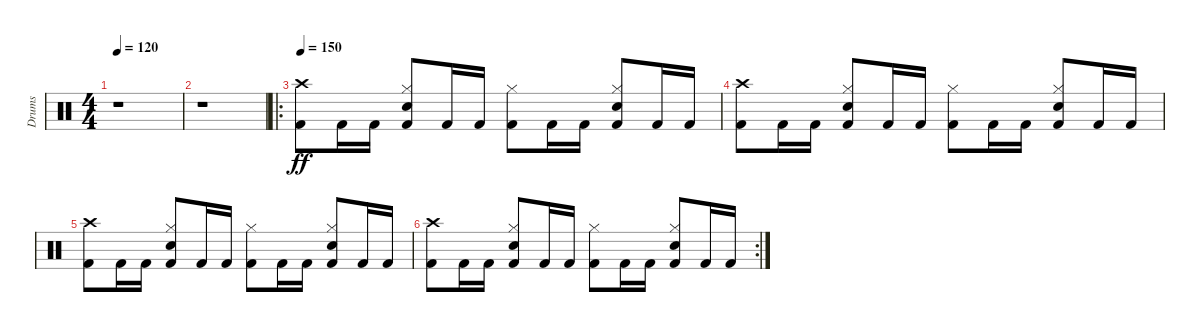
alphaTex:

\track ("Drums" "Drums") {instrument percussion}
\staff {score}
\articulation defaults
\ts (4 4)
\tempo 120
\clef neutral
\ks c
r.1{dy f} |
r.1 |
\ro
\tempo 150
("Crash high (hit)" "Kick (hit) 2").8{dy ff} "Kick (hit) 2".16 "Kick (hit) 2".16 ("Hi-Hat (closed)" "Snare (hit) 2" "Kick (hit) 2").8 "Kick (hit) 2".16 "Kick (hit) 2".16 ("Hi-Hat (closed)" "Kick (hit) 2").8 "Kick (hit) 2".16 "Kick (hit) 2".16 ("Hi-Hat (closed)" "Snare (hit) 2" "Kick (hit) 2").8 "Kick (hit) 2".16 "Kick (hit) 2".16 |
("Crash high (hit)" "Kick (hit) 2").8 "Kick (hit) 2".16 "Kick (hit) 2".16 ("Hi-Hat (closed)" "Snare (hit) 2" "Kick (hit) 2").8 "Kick (hit) 2".16 "Kick (hit) 2".16 ("Hi-Hat (closed)" "Kick (hit) 2").8 "Kick (hit) 2".16 "Kick (hit) 2".16 ("Hi-Hat (closed)" "Snare (hit) 2" "Kick (hit) 2").8 "Kick (hit) 2".16 "Kick (hit) 2".16 |
("Crash high (hit)" "Kick (hit) 2").8 "Kick (hit) 2".16 "Kick (hit) 2".16 ("Hi-Hat (closed)" "Snare (hit) 2" "Kick (hit) 2").8 "Kick (hit) 2".16 "Kick (hit) 2".16 ("Hi-Hat (closed)" "Kick (hit) 2").8 "Kick (hit) 2".16 "Kick (hit) 2".16 ("Hi-Hat (closed)" "Snare (hit) 2" "Kick (hit) 2").8 "Kick (hit) 2".16 "Kick (hit) 2".16 |
\rc 2
("Crash high (hit)" "Kick (hit) 2").8 "Kick (hit) 2".16 "Kick (hit) 2".16 ("Hi-Hat (closed)" "Snare (hit) 2" "Kick (hit) 2").8 "Kick (hit) 2".16 "Kick (hit) 2".16 ("Hi-Hat (closed)" "Kick (hit) 2").8 "Kick (hit) 2".16 "Kick (hit) 2".16 ("Hi-Hat (closed)" "Snare (hit) 2" "Kick (hit) 2").8 "Kick (hit) 2".16 "Kick (hit) 2".16
